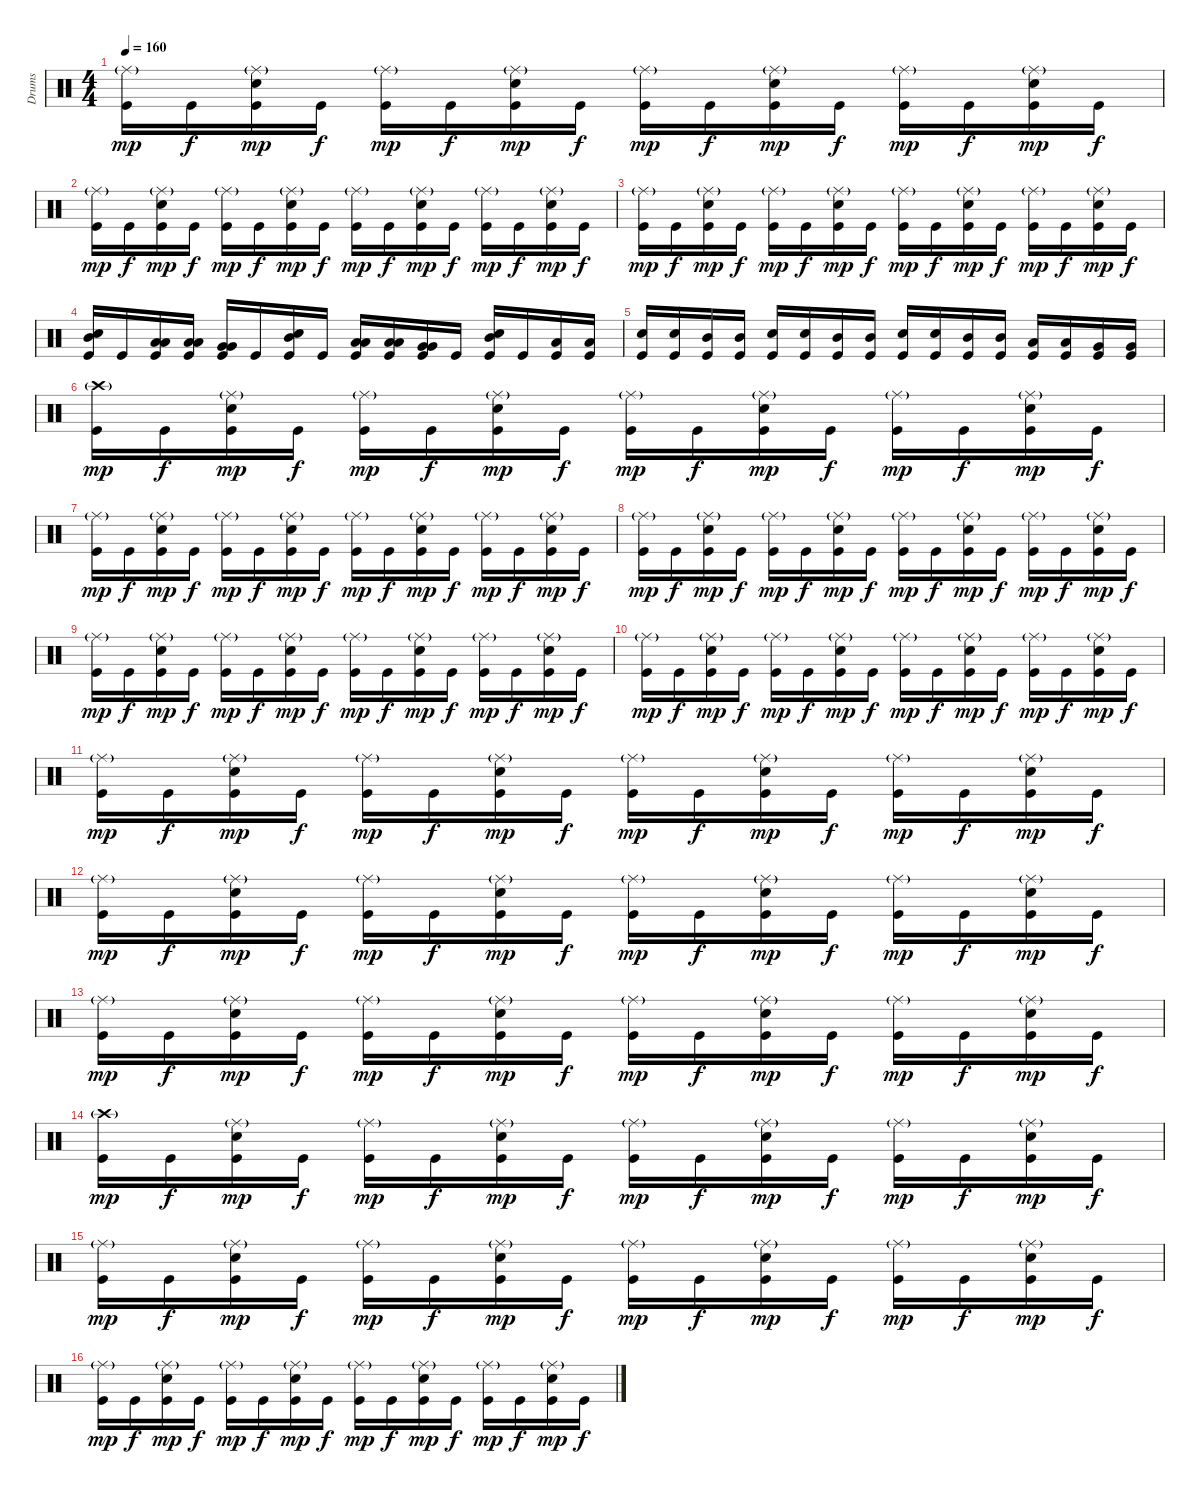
\track ("Drums" "Drums") {instrument percussion}
\staff {score}
\articulation defaults
\ts (4 4)
\tempo 160
\clef neutral
\ks c
("Ride (middle)"{g} "Kick (hit)").16{dy mp} "Kick (hit)".16{dy f} ("Ride (middle)"{g} "Snare (hit) 2" "Kick (hit)").16{dy mp} "Kick (hit)".16{dy f} ("Ride (middle)"{g} "Kick (hit)").16{dy mp} "Kick (hit)".16{dy f} ("Ride (middle)"{g} "Snare (hit) 2" "Kick (hit)").16{dy mp} "Kick (hit)".16{dy f} ("Ride (middle)"{g} "Kick (hit)").16{dy mp} "Kick (hit)".16{dy f} ("Ride (middle)"{g} "Snare (hit) 2" "Kick (hit)").16{dy mp} "Kick (hit)".16{dy f} ("Ride (middle)"{g} "Kick (hit)").16{dy mp} "Kick (hit)".16{dy f} ("Ride (middle)"{g} "Snare (hit) 2" "Kick (hit)").16{dy mp} "Kick (hit)".16{dy f} |
("Ride (middle)"{g} "Kick (hit)").16{dy mp} "Kick (hit)".16{dy f} ("Ride (middle)"{g} "Snare (hit) 2" "Kick (hit)").16{dy mp} "Kick (hit)".16{dy f} ("Ride (middle)"{g} "Kick (hit)").16{dy mp} "Kick (hit)".16{dy f} ("Ride (middle)"{g} "Snare (hit) 2" "Kick (hit)").16{dy mp} "Kick (hit)".16{dy f} ("Ride (middle)"{g} "Kick (hit)").16{dy mp} "Kick (hit)".16{dy f} ("Ride (middle)"{g} "Snare (hit) 2" "Kick (hit)").16{dy mp} "Kick (hit)".16{dy f} ("Ride (middle)"{g} "Kick (hit)").16{dy mp} "Kick (hit)".16{dy f} ("Ride (middle)"{g} "Snare (hit) 2" "Kick (hit)").16{dy mp} "Kick (hit)".16{dy f} |
("Ride (middle)"{g} "Kick (hit)").16{dy mp} "Kick (hit)".16{dy f} ("Ride (middle)"{g} "Snare (hit) 2" "Kick (hit)").16{dy mp} "Kick (hit)".16{dy f} ("Ride (middle)"{g} "Kick (hit)").16{dy mp} "Kick (hit)".16{dy f} ("Ride (middle)"{g} "Snare (hit) 2" "Kick (hit)").16{dy mp} "Kick (hit)".16{dy f} ("Ride (middle)"{g} "Kick (hit)").16{dy mp} "Kick (hit)".16{dy f} ("Ride (middle)"{g} "Snare (hit) 2" "Kick (hit)").16{dy mp} "Kick (hit)".16{dy f} ("Ride (middle)"{g} "Kick (hit)").16{dy mp} "Kick (hit)".16{dy f} ("Ride (middle)"{g} "Snare (hit) 2" "Kick (hit)").16{dy mp} "Kick (hit)".16{dy f} |
("Snare (hit) 2" "Mid Tom (hit)" "Kick (hit)").16 "Kick (hit)".16 ("Low Tom (hit)" "Low Tom (hit)" "Kick (hit)").16 ("Low Tom (hit)" "Low Tom (hit)" "Kick (hit)").16 ("Very Low Tom (hit)" "Very Low Tom (hit)" "Kick (hit)").16 "Kick (hit)".16 ("Snare (hit) 2" "Mid Tom (hit)" "Kick (hit)").16 "Kick (hit)".16 ("Low Tom (hit)" "Low Tom (hit)" "Kick (hit)").16 ("Low Tom (hit)" "Low Tom (hit)" "Kick (hit)").16 ("Very Low Tom (hit)" "Very Low Tom (hit)" "Kick (hit)").16 "Kick (hit)".16 ("Snare (hit) 2" "Mid Tom (hit)" "Kick (hit)").16 "Kick (hit)".16 ("Low Tom (hit)" "Kick (hit)").16 ("Low Tom (hit)" "Kick (hit)").16 |
("Snare (hit) 2" "Kick (hit)").16 ("Snare (hit) 2" "Kick (hit)").16 ("Mid Tom (hit)" "Kick (hit)").16 ("Mid Tom (hit)" "Kick (hit)").16 ("Snare (hit) 2" "Kick (hit)").16 ("Snare (hit) 2" "Kick (hit)").16 ("Mid Tom (hit)" "Kick (hit)").16 ("Mid Tom (hit)" "Kick (hit)").16 ("Snare (hit) 2" "Kick (hit)").16 ("Snare (hit) 2" "Kick (hit)").16 ("Mid Tom (hit)" "Kick (hit)").16 ("Mid Tom (hit)" "Kick (hit)").16 ("Low Tom (hit)" "Kick (hit)").16 ("Low Tom (hit)" "Kick (hit)").16 ("Very Low Tom (hit)" "Kick (hit)").16 ("Very Low Tom (hit)" "Kick (hit)").16 |
("Crash high (hit)"{g} "Kick (hit)").16{dy mp} "Kick (hit)".16{dy f} ("Ride (middle)"{g} "Snare (hit) 2" "Kick (hit)").16{dy mp} "Kick (hit)".16{dy f} ("Ride (middle)"{g} "Kick (hit)").16{dy mp} "Kick (hit)".16{dy f} ("Ride (middle)"{g} "Snare (hit) 2" "Kick (hit)").16{dy mp} "Kick (hit)".16{dy f} ("Ride (middle)"{g} "Kick (hit)").16{dy mp} "Kick (hit)".16{dy f} ("Ride (middle)"{g} "Snare (hit) 2" "Kick (hit)").16{dy mp} "Kick (hit)".16{dy f} ("Ride (middle)"{g} "Kick (hit)").16{dy mp} "Kick (hit)".16{dy f} ("Ride (middle)"{g} "Snare (hit) 2" "Kick (hit)").16{dy mp} "Kick (hit)".16{dy f} |
("Ride (middle)"{g} "Kick (hit)").16{dy mp} "Kick (hit)".16{dy f} ("Ride (middle)"{g} "Snare (hit) 2" "Kick (hit)").16{dy mp} "Kick (hit)".16{dy f} ("Ride (middle)"{g} "Kick (hit)").16{dy mp} "Kick (hit)".16{dy f} ("Ride (middle)"{g} "Snare (hit) 2" "Kick (hit)").16{dy mp} "Kick (hit)".16{dy f} ("Ride (middle)"{g} "Kick (hit)").16{dy mp} "Kick (hit)".16{dy f} ("Ride (middle)"{g} "Snare (hit) 2" "Kick (hit)").16{dy mp} "Kick (hit)".16{dy f} ("Ride (middle)"{g} "Kick (hit)").16{dy mp} "Kick (hit)".16{dy f} ("Ride (middle)"{g} "Snare (hit) 2" "Kick (hit)").16{dy mp} "Kick (hit)".16{dy f} |
("Ride (middle)"{g} "Kick (hit)").16{dy mp} "Kick (hit)".16{dy f} ("Ride (middle)"{g} "Snare (hit) 2" "Kick (hit)").16{dy mp} "Kick (hit)".16{dy f} ("Ride (middle)"{g} "Kick (hit)").16{dy mp} "Kick (hit)".16{dy f} ("Ride (middle)"{g} "Snare (hit) 2" "Kick (hit)").16{dy mp} "Kick (hit)".16{dy f} ("Ride (middle)"{g} "Kick (hit)").16{dy mp} "Kick (hit)".16{dy f} ("Ride (middle)"{g} "Snare (hit) 2" "Kick (hit)").16{dy mp} "Kick (hit)".16{dy f} ("Ride (middle)"{g} "Kick (hit)").16{dy mp} "Kick (hit)".16{dy f} ("Ride (middle)"{g} "Snare (hit) 2" "Kick (hit)").16{dy mp} "Kick (hit)".16{dy f} |
("Ride (middle)"{g} "Kick (hit)").16{dy mp} "Kick (hit)".16{dy f} ("Ride (middle)"{g} "Snare (hit) 2" "Kick (hit)").16{dy mp} "Kick (hit)".16{dy f} ("Ride (middle)"{g} "Kick (hit)").16{dy mp} "Kick (hit)".16{dy f} ("Ride (middle)"{g} "Snare (hit) 2" "Kick (hit)").16{dy mp} "Kick (hit)".16{dy f} ("Ride (middle)"{g} "Kick (hit)").16{dy mp} "Kick (hit)".16{dy f} ("Ride (middle)"{g} "Snare (hit) 2" "Kick (hit)").16{dy mp} "Kick (hit)".16{dy f} ("Ride (middle)"{g} "Kick (hit)").16{dy mp} "Kick (hit)".16{dy f} ("Ride (middle)"{g} "Snare (hit) 2" "Kick (hit)").16{dy mp} "Kick (hit)".16{dy f} |
("Ride (middle)"{g} "Kick (hit)").16{dy mp} "Kick (hit)".16{dy f} ("Ride (middle)"{g} "Snare (hit) 2" "Kick (hit)").16{dy mp} "Kick (hit)".16{dy f} ("Ride (middle)"{g} "Kick (hit)").16{dy mp} "Kick (hit)".16{dy f} ("Ride (middle)"{g} "Snare (hit) 2" "Kick (hit)").16{dy mp} "Kick (hit)".16{dy f} ("Ride (middle)"{g} "Kick (hit)").16{dy mp} "Kick (hit)".16{dy f} ("Ride (middle)"{g} "Snare (hit) 2" "Kick (hit)").16{dy mp} "Kick (hit)".16{dy f} ("Ride (middle)"{g} "Kick (hit)").16{dy mp} "Kick (hit)".16{dy f} ("Ride (middle)"{g} "Snare (hit) 2" "Kick (hit)").16{dy mp} "Kick (hit)".16{dy f} |
("Ride (middle)"{g} "Kick (hit)").16{dy mp} "Kick (hit)".16{dy f} ("Ride (middle)"{g} "Snare (hit) 2" "Kick (hit)").16{dy mp} "Kick (hit)".16{dy f} ("Ride (middle)"{g} "Kick (hit)").16{dy mp} "Kick (hit)".16{dy f} ("Ride (middle)"{g} "Snare (hit) 2" "Kick (hit)").16{dy mp} "Kick (hit)".16{dy f} ("Ride (middle)"{g} "Kick (hit)").16{dy mp} "Kick (hit)".16{dy f} ("Ride (middle)"{g} "Snare (hit) 2" "Kick (hit)").16{dy mp} "Kick (hit)".16{dy f} ("Ride (middle)"{g} "Kick (hit)").16{dy mp} "Kick (hit)".16{dy f} ("Ride (middle)"{g} "Snare (hit) 2" "Kick (hit)").16{dy mp} "Kick (hit)".16{dy f} |
("Ride (middle)"{g} "Kick (hit)").16{dy mp} "Kick (hit)".16{dy f} ("Ride (middle)"{g} "Snare (hit) 2" "Kick (hit)").16{dy mp} "Kick (hit)".16{dy f} ("Ride (middle)"{g} "Kick (hit)").16{dy mp} "Kick (hit)".16{dy f} ("Ride (middle)"{g} "Snare (hit) 2" "Kick (hit)").16{dy mp} "Kick (hit)".16{dy f} ("Ride (middle)"{g} "Kick (hit)").16{dy mp} "Kick (hit)".16{dy f} ("Ride (middle)"{g} "Snare (hit) 2" "Kick (hit)").16{dy mp} "Kick (hit)".16{dy f} ("Ride (middle)"{g} "Kick (hit)").16{dy mp} "Kick (hit)".16{dy f} ("Ride (middle)"{g} "Snare (hit) 2" "Kick (hit)").16{dy mp} "Kick (hit)".16{dy f} |
("Ride (middle)"{g} "Kick (hit)").16{dy mp} "Kick (hit)".16{dy f} ("Ride (middle)"{g} "Snare (hit) 2" "Kick (hit)").16{dy mp} "Kick (hit)".16{dy f} ("Ride (middle)"{g} "Kick (hit)").16{dy mp} "Kick (hit)".16{dy f} ("Ride (middle)"{g} "Snare (hit) 2" "Kick (hit)").16{dy mp} "Kick (hit)".16{dy f} ("Ride (middle)"{g} "Kick (hit)").16{dy mp} "Kick (hit)".16{dy f} ("Ride (middle)"{g} "Snare (hit) 2" "Kick (hit)").16{dy mp} "Kick (hit)".16{dy f} ("Ride (middle)"{g} "Kick (hit)").16{dy mp} "Kick (hit)".16{dy f} ("Ride (middle)"{g} "Snare (hit) 2" "Kick (hit)").16{dy mp} "Kick (hit)".16{dy f} |
("Crash high (hit)"{g} "Kick (hit)").16{dy mp} "Kick (hit)".16{dy f} ("Ride (middle)"{g} "Snare (hit) 2" "Kick (hit)").16{dy mp} "Kick (hit)".16{dy f} ("Ride (middle)"{g} "Kick (hit)").16{dy mp} "Kick (hit)".16{dy f} ("Ride (middle)"{g} "Snare (hit) 2" "Kick (hit)").16{dy mp} "Kick (hit)".16{dy f} ("Ride (middle)"{g} "Kick (hit)").16{dy mp} "Kick (hit)".16{dy f} ("Ride (middle)"{g} "Snare (hit) 2" "Kick (hit)").16{dy mp} "Kick (hit)".16{dy f} ("Ride (middle)"{g} "Kick (hit)").16{dy mp} "Kick (hit)".16{dy f} ("Ride (middle)"{g} "Snare (hit) 2" "Kick (hit)").16{dy mp} "Kick (hit)".16{dy f} |
("Ride (middle)"{g} "Kick (hit)").16{dy mp} "Kick (hit)".16{dy f} ("Ride (middle)"{g} "Snare (hit) 2" "Kick (hit)").16{dy mp} "Kick (hit)".16{dy f} ("Ride (middle)"{g} "Kick (hit)").16{dy mp} "Kick (hit)".16{dy f} ("Ride (middle)"{g} "Snare (hit) 2" "Kick (hit)").16{dy mp} "Kick (hit)".16{dy f} ("Ride (middle)"{g} "Kick (hit)").16{dy mp} "Kick (hit)".16{dy f} ("Ride (middle)"{g} "Snare (hit) 2" "Kick (hit)").16{dy mp} "Kick (hit)".16{dy f} ("Ride (middle)"{g} "Kick (hit)").16{dy mp} "Kick (hit)".16{dy f} ("Ride (middle)"{g} "Snare (hit) 2" "Kick (hit)").16{dy mp} "Kick (hit)".16{dy f} |
("Ride (middle)"{g} "Kick (hit)").16{dy mp} "Kick (hit)".16{dy f} ("Ride (middle)"{g} "Snare (hit) 2" "Kick (hit)").16{dy mp} "Kick (hit)".16{dy f} ("Ride (middle)"{g} "Kick (hit)").16{dy mp} "Kick (hit)".16{dy f} ("Ride (middle)"{g} "Snare (hit) 2" "Kick (hit)").16{dy mp} "Kick (hit)".16{dy f} ("Ride (middle)"{g} "Kick (hit)").16{dy mp} "Kick (hit)".16{dy f} ("Ride (middle)"{g} "Snare (hit) 2" "Kick (hit)").16{dy mp} "Kick (hit)".16{dy f} ("Ride (middle)"{g} "Kick (hit)").16{dy mp} "Kick (hit)".16{dy f} ("Ride (middle)"{g} "Snare (hit) 2" "Kick (hit)").16{dy mp} "Kick (hit)".16{dy f}
